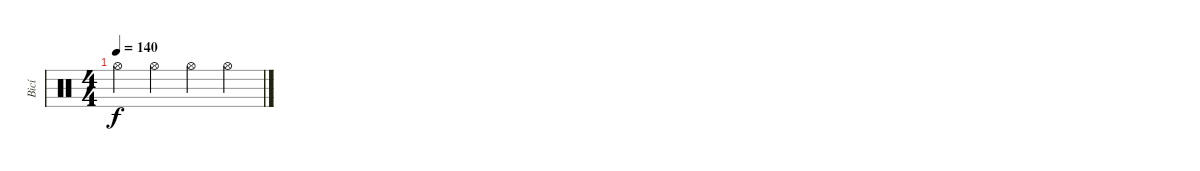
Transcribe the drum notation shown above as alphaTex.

\track ("Bicí" "Bicí") {instrument percussion}
\staff {score}
\articulation defaults
\ts (4 4)
\tempo 140
\clef neutral
\ks c "Hi-Hat (open)".4{dy f} "Hi-Hat (open)".4 "Hi-Hat (open)".4 "Hi-Hat (open)".4
